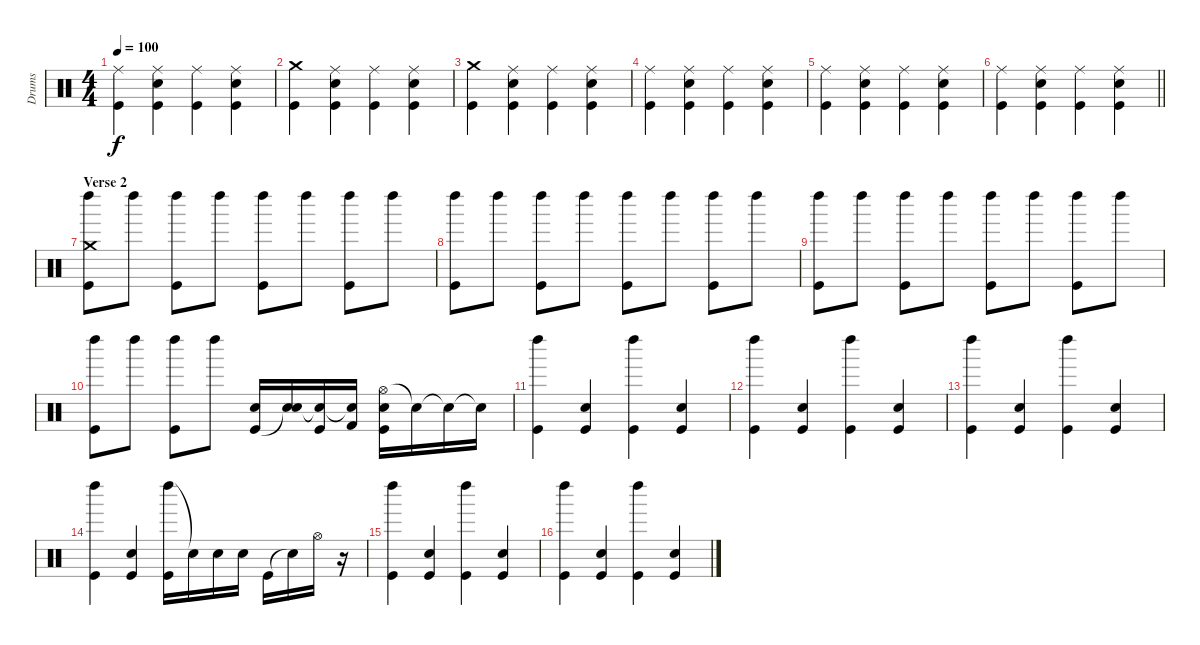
\track ("Drums" "Drums") {instrument percussion}
\staff {score}
\articulation defaults
\ts (4 4)
\tempo 100
\clef neutral
\ks c
("Ride (middle)" "Kick (hit)").4{dy f} ("Ride (middle)" "Kick (hit)" "Snare (hit) 2").4 ("Ride (middle)" "Kick (hit)").4 ("Ride (middle)" "Kick (hit)" "Snare (hit) 2").4 |
("Crash medium (hit)" "Kick (hit)").4 ("Ride (middle)" "Kick (hit)" "Snare (hit) 2").4 ("Ride (middle)" "Kick (hit)").4 ("Ride (middle)" "Kick (hit)" "Snare (hit) 2").4 |
("Crash medium (hit)" "Kick (hit)").4 ("Ride (middle)" "Kick (hit)" "Snare (hit) 2").4 ("Ride (middle)" "Kick (hit)").4 ("Ride (middle)" "Kick (hit)" "Snare (hit) 2").4 |
("Ride (middle)" "Kick (hit)").4 ("Ride (middle)" "Kick (hit)" "Snare (hit) 2").4 ("Ride (middle)" "Kick (hit)").4 ("Ride (middle)" "Kick (hit)" "Snare (hit) 2").4 |
("Ride (middle)" "Kick (hit)").4 ("Ride (middle)" "Kick (hit)" "Snare (hit) 2").4 ("Ride (middle)" "Kick (hit)").4 ("Ride (middle)" "Kick (hit)" "Snare (hit) 2").4 |
\barLineRight lightlight
("Ride (middle)" "Kick (hit)").4 ("Ride (middle)" "Kick (hit)" "Snare (hit) 2").4 ("Ride (middle)" "Kick (hit)").4 ("Ride (middle)" "Kick (hit)" "Snare (hit) 2").4 |
\section ("" "Verse 2")
("Left Maraca (hit)" "Kick (hit)" "Crash medium (hit)").8 "Left Maraca (hit)".8 ("Left Maraca (hit)" "Kick (hit)").8 "Left Maraca (hit)".8 ("Left Maraca (hit)" "Kick (hit)").8 "Left Maraca (hit)".8 ("Left Maraca (hit)" "Kick (hit)").8 "Left Maraca (hit)".8 |
("Left Maraca (hit)" "Kick (hit)").8 "Left Maraca (hit)".8 ("Left Maraca (hit)" "Kick (hit)").8 "Left Maraca (hit)".8 ("Left Maraca (hit)" "Kick (hit)").8 "Left Maraca (hit)".8 ("Left Maraca (hit)" "Kick (hit)").8 "Left Maraca (hit)".8 |
("Left Maraca (hit)" "Kick (hit)").8 "Left Maraca (hit)".8 ("Left Maraca (hit)" "Kick (hit)").8 "Left Maraca (hit)".8 ("Left Maraca (hit)" "Kick (hit)").8 "Left Maraca (hit)".8 ("Left Maraca (hit)" "Kick (hit)").8 "Left Maraca (hit)".8 |
("Left Maraca (hit)" "Kick (hit)").8 "Left Maraca (hit)".8 ("Left Maraca (hit)" "Kick (hit)").8 "Left Maraca (hit)".8 ("Kick (hit)" "Snare (hit) 2").16 ("Snare (hit)"{t} "Snare (hit) 2").16 ("Snare (hit)"{t} "Kick (hit)").16 ("Snare (hit)"{t} "Kick (hit) 2").16 ("Hi-Hat (open)" "Kick (hit)" "Snare (hit) 2").16 "Snare (hit)"{t}.16 "Snare (hit)"{t}.16 "Snare (hit)"{t}.16 |
("Left Maraca (hit)" "Kick (hit)").4 ("Kick (hit)" "Snare (hit) 2").4 ("Left Maraca (hit)" "Kick (hit)").4 ("Kick (hit)" "Snare (hit) 2").4 |
("Left Maraca (hit)" "Kick (hit)").4 ("Kick (hit)" "Snare (hit) 2").4 ("Left Maraca (hit)" "Kick (hit)").4 ("Kick (hit)" "Snare (hit) 2").4 |
("Left Maraca (hit)" "Kick (hit)").4 ("Kick (hit)" "Snare (hit) 2").4 ("Left Maraca (hit)" "Kick (hit)").4 ("Kick (hit)" "Snare (hit) 2").4 |
("Left Maraca (hit)" "Kick (hit)").4 ("Kick (hit)" "Snare (hit) 2").4 ("Left Maraca (hit)" "Kick (hit)").16 "Snare (hit) 2"{t}.16 "Snare (hit) 2".16 "Snare (hit) 2".16 "Kick (hit)".16 "Snare (hit)"{t}.16 "Hi-Hat (open)".16 r.16 |
("Left Maraca (hit)" "Kick (hit)").4 ("Kick (hit)" "Snare (hit) 2").4 ("Left Maraca (hit)" "Kick (hit)").4 ("Kick (hit)" "Snare (hit) 2").4 |
("Left Maraca (hit)" "Kick (hit)").4 ("Kick (hit)" "Snare (hit) 2").4 ("Left Maraca (hit)" "Kick (hit)").4 ("Kick (hit)" "Snare (hit) 2").4
